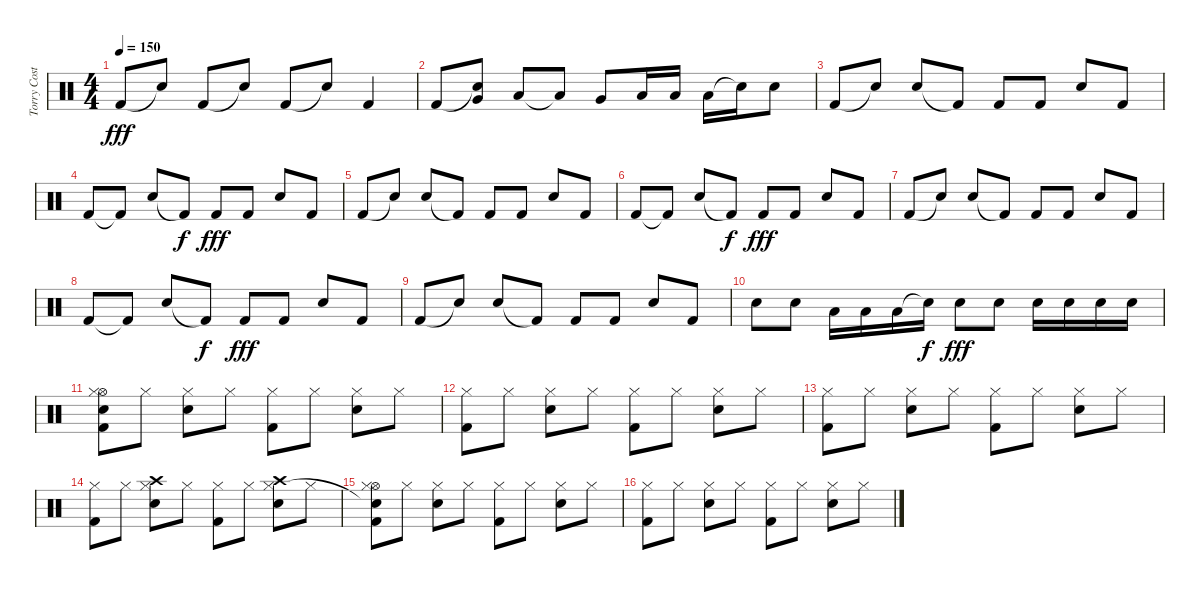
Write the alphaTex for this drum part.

\track ("Torry Costellano" "Torry Cost") {instrument percussion}
\staff {score}
\articulation defaults
\ts (4 4)
\tempo 150
\clef neutral
\ks c "Kick (hit) 2".8{dy fff} "Snare (hit)"{t}.8 "Kick (hit) 2".8 "Snare (hit)"{t}.8 "Kick (hit) 2".8 "Snare (hit)"{t}.8 "Kick (hit) 2".4
|
"Kick (hit) 2".8 ("Snare (hit)"{t} "Very Low Tom (hit)").8 "Low Floor Tom (hit)".8 "Low Floor Tom (hit)"{t}.8 "Very Low Tom (hit)".8 "Low Floor Tom (hit)".16 "Low Floor Tom (hit)".16 "Low Floor Tom (hit)".16 "Electric Snare (hit)"{t}.16 "Electric Snare (hit)".8 |
"Kick (hit) 2".8 "Snare (hit)"{t}.8 "Electric Snare (hit)".8 "Kick (hit) 2"{t}.8 "Kick (hit) 2".8 "Kick (hit) 2".8 "Electric Snare (hit)".8 "Kick (hit) 2".8 |
"Kick (hit) 2".8 "Kick (hit) 2"{t}.8 "Electric Snare (hit)".8 "Kick (hit) 2"{t}.8{dy f} "Kick (hit) 2".8{dy fff} "Kick (hit) 2".8 "Electric Snare (hit)".8 "Kick (hit) 2".8 |
"Kick (hit) 2".8 "Snare (hit)"{t}.8 "Electric Snare (hit)".8 "Kick (hit) 2"{t}.8 "Kick (hit) 2".8 "Kick (hit) 2".8 "Electric Snare (hit)".8 "Kick (hit) 2".8 |
"Kick (hit) 2".8 "Kick (hit) 2"{t}.8 "Electric Snare (hit)".8 "Kick (hit) 2"{t}.8{dy f} "Kick (hit) 2".8{dy fff} "Kick (hit) 2".8 "Electric Snare (hit)".8 "Kick (hit) 2".8 |
"Kick (hit) 2".8 "Snare (hit)"{t}.8 "Electric Snare (hit)".8 "Kick (hit) 2"{t}.8 "Kick (hit) 2".8 "Kick (hit) 2".8 "Electric Snare (hit)".8 "Kick (hit) 2".8 |
"Kick (hit) 2".8 "Kick (hit) 2"{t}.8 "Electric Snare (hit)".8 "Kick (hit) 2"{t}.8{dy f} "Kick (hit) 2".8{dy fff} "Kick (hit) 2".8 "Electric Snare (hit)".8 "Kick (hit) 2".8 |
"Kick (hit) 2".8 "Snare (hit)"{t}.8 "Electric Snare (hit)".8 "Kick (hit) 2"{t}.8 "Kick (hit) 2".8 "Kick (hit) 2".8 "Electric Snare (hit)".8 "Kick (hit) 2".8 |
"Electric Snare (hit)".8 "Electric Snare (hit)".8 "Low Floor Tom (hit)".16 "Low Floor Tom (hit)".16 "Low Floor Tom (hit)".16 "Electric Snare (hit)"{t}.16{dy f} "Electric Snare (hit)".8{dy fff} "Electric Snare (hit)".8 "Electric Snare (hit)".16 "Electric Snare (hit)".16 "Electric Snare (hit)".16 "Electric Snare (hit)".16 |
("Hi-Hat (open)" "Snare (hit)" "Hi-Hat (closed)" "Kick (hit) 2").8 "Hi-Hat (closed)".8 ("Hi-Hat (closed)" "Electric Snare (hit)").8 "Hi-Hat (closed)".8 ("Hi-Hat (closed)" "Kick (hit) 2").8 "Hi-Hat (closed)".8 ("Hi-Hat (closed)" "Electric Snare (hit)").8 "Hi-Hat (closed)".8 |
("Hi-Hat (closed)" "Kick (hit) 2").8 "Hi-Hat (closed)".8 ("Hi-Hat (closed)" "Electric Snare (hit)").8 "Hi-Hat (closed)".8 ("Hi-Hat (closed)" "Kick (hit) 2").8 "Hi-Hat (closed)".8 ("Hi-Hat (closed)" "Electric Snare (hit)").8 "Hi-Hat (closed)".8 |
("Hi-Hat (closed)" "Kick (hit) 2").8 "Hi-Hat (closed)".8 ("Hi-Hat (closed)" "Electric Snare (hit)").8 "Hi-Hat (closed)".8 ("Hi-Hat (closed)" "Kick (hit) 2").8 "Hi-Hat (closed)".8 ("Hi-Hat (closed)" "Electric Snare (hit)").8 "Hi-Hat (closed)".8 |
("Hi-Hat (closed)" "Kick (hit) 2").8 "Hi-Hat (closed)".8 ("Crash high (hit)" "Hi-Hat (closed)" "Electric Snare (hit)").8 "Hi-Hat (closed)".8 ("Hi-Hat (closed)" "Kick (hit) 2").8 "Hi-Hat (closed)".8 ("Crash high (hit)" "Hi-Hat (closed)" "Electric Snare (hit)").8 "Hi-Hat (closed)".8 |
("Hi-Hat (open)" "Snare (hit)"{t} "Hi-Hat (closed)" "Kick (hit) 2").8 "Hi-Hat (closed)".8 ("Hi-Hat (closed)" "Electric Snare (hit)").8 "Hi-Hat (closed)".8 ("Hi-Hat (closed)" "Kick (hit) 2").8 "Hi-Hat (closed)".8 ("Hi-Hat (closed)" "Electric Snare (hit)").8 "Hi-Hat (closed)".8 |
("Hi-Hat (closed)" "Kick (hit) 2").8 "Hi-Hat (closed)".8 ("Hi-Hat (closed)" "Electric Snare (hit)").8 "Hi-Hat (closed)".8 ("Hi-Hat (closed)" "Kick (hit) 2").8 "Hi-Hat (closed)".8 ("Hi-Hat (closed)" "Electric Snare (hit)").8 "Hi-Hat (closed)".8
